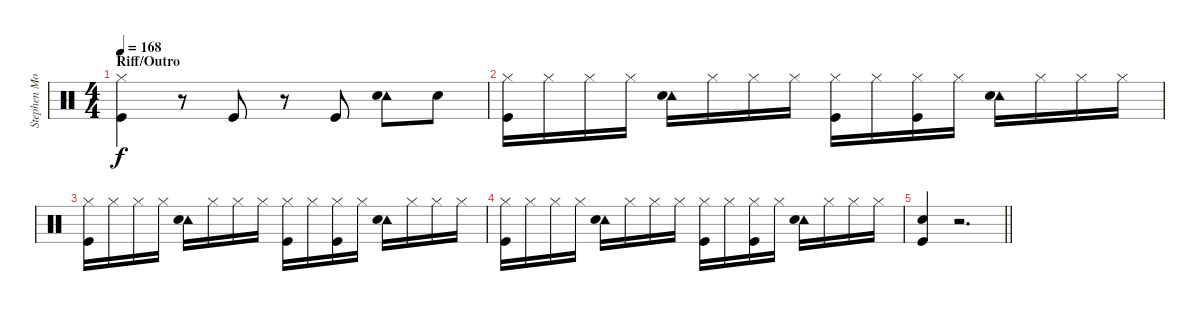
\track ("Stephen Morris - Drums" "Stephen Mo") {instrument percussion}
\staff {score}
\articulation defaults
\ts (4 4)
\section ("" "Riff/Outro")
\tempo 168
\clef neutral
\ks c
("Hi-Hat (closed)" "Kick (hit)").4{dy f} r.8 "Kick (hit)".8 r.8 "Kick (hit)".8 ("Tambourine (hit)" "Snare (hit) 2").8 "Snare (hit) 2".8 |
("Hi-Hat (closed)" "Kick (hit)").16 "Hi-Hat (closed)".16 "Hi-Hat (closed)".16 "Hi-Hat (closed)".16 ("Tambourine (hit)" "Snare (hit) 2").16 "Hi-Hat (closed)".16 "Hi-Hat (closed)".16 "Hi-Hat (closed)".16 ("Hi-Hat (closed)" "Kick (hit)").16 "Hi-Hat (closed)".16 ("Hi-Hat (closed)" "Kick (hit)").16 "Hi-Hat (closed)".16 ("Tambourine (hit)" "Snare (hit) 2").16 "Hi-Hat (closed)".16 "Hi-Hat (closed)".16 "Hi-Hat (closed)".16 |
("Hi-Hat (closed)" "Kick (hit)").16 "Hi-Hat (closed)".16 "Hi-Hat (closed)".16 "Hi-Hat (closed)".16 ("Tambourine (hit)" "Snare (hit) 2").16 "Hi-Hat (closed)".16 "Hi-Hat (closed)".16 "Hi-Hat (closed)".16 ("Hi-Hat (closed)" "Kick (hit)").16 "Hi-Hat (closed)".16 ("Hi-Hat (closed)" "Kick (hit)").16 "Hi-Hat (closed)".16 ("Tambourine (hit)" "Snare (hit) 2").16 "Hi-Hat (closed)".16 "Hi-Hat (closed)".16 "Hi-Hat (closed)".16 |
("Hi-Hat (closed)" "Kick (hit)").16 "Hi-Hat (closed)".16 "Hi-Hat (closed)".16 "Hi-Hat (closed)".16 ("Tambourine (hit)" "Snare (hit) 2").16 "Hi-Hat (closed)".16 "Hi-Hat (closed)".16 "Hi-Hat (closed)".16 ("Hi-Hat (closed)" "Kick (hit)").16 "Hi-Hat (closed)".16 ("Hi-Hat (closed)" "Kick (hit)").16 "Hi-Hat (closed)".16 ("Tambourine (hit)" "Snare (hit) 2").16 "Hi-Hat (closed)".16 "Hi-Hat (closed)".16 "Hi-Hat (closed)".16 |
\barLineRight lightlight
("Snare (hit) 2" "Kick (hit)").4 r.2{d}
